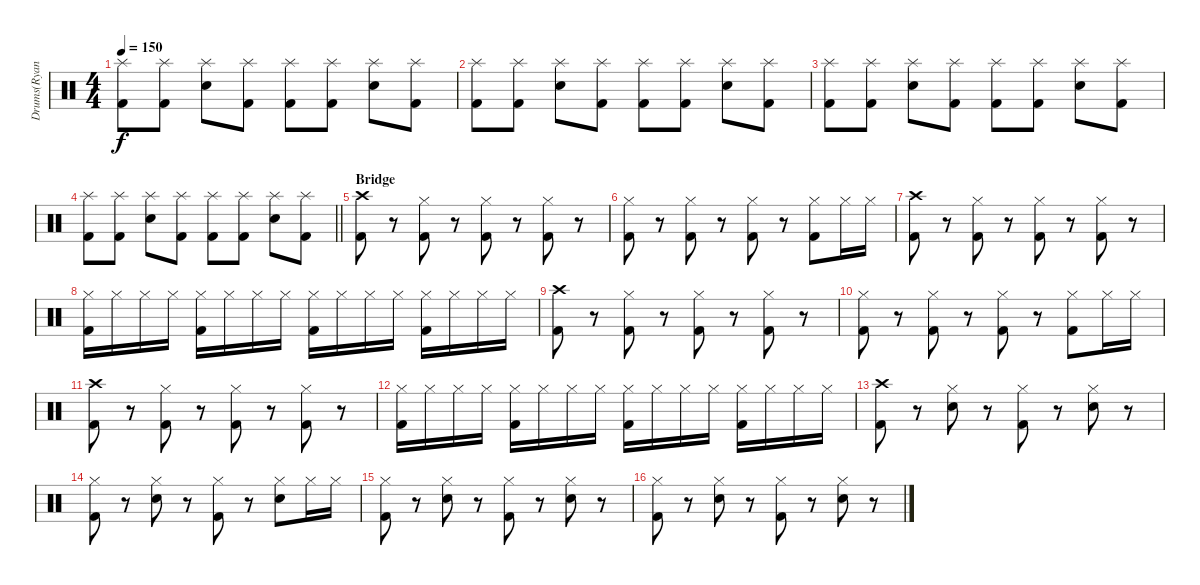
\track ("Drums(Ryan)" "Drums(Ryan") {instrument percussion}
\staff {score}
\articulation defaults
\ts (4 4)
\tempo 150
\clef neutral
\ks c
("Splash (hit)" "Kick (hit) 2").8{dy f} ("Splash (hit)" "Kick (hit) 2").8 ("Splash (hit)" "Electric Snare (hit)").8 ("Splash (hit)" "Kick (hit) 2").8 ("Splash (hit)" "Kick (hit) 2").8 ("Splash (hit)" "Kick (hit) 2").8 ("Splash (hit)" "Electric Snare (hit)").8 ("Splash (hit)" "Kick (hit) 2").8 |
("Splash (hit)" "Kick (hit) 2").8 ("Splash (hit)" "Kick (hit) 2").8 ("Splash (hit)" "Electric Snare (hit)").8 ("Splash (hit)" "Kick (hit) 2").8 ("Splash (hit)" "Kick (hit) 2").8 ("Splash (hit)" "Kick (hit) 2").8 ("Splash (hit)" "Electric Snare (hit)").8 ("Splash (hit)" "Kick (hit) 2").8 |
("Splash (hit)" "Kick (hit) 2").8 ("Splash (hit)" "Kick (hit) 2").8 ("Splash (hit)" "Electric Snare (hit)").8 ("Splash (hit)" "Kick (hit) 2").8 ("Splash (hit)" "Kick (hit) 2").8 ("Splash (hit)" "Kick (hit) 2").8 ("Splash (hit)" "Electric Snare (hit)").8 ("Splash (hit)" "Kick (hit) 2").8 |
\barLineRight lightlight
("Splash (hit)" "Kick (hit) 2").8 ("Splash (hit)" "Kick (hit) 2").8 ("Splash (hit)" "Electric Snare (hit)").8 ("Splash (hit)" "Kick (hit) 2").8 ("Splash (hit)" "Kick (hit) 2").8 ("Splash (hit)" "Kick (hit) 2").8 ("Splash (hit)" "Electric Snare (hit)").8 ("Splash (hit)" "Kick (hit) 2").8 |
\section ("" "Bridge")
("Crash high (hit)" "Kick (hit) 2").8 r.8 ("Hi-Hat (closed)" "Kick (hit) 2").8 r.8 ("Hi-Hat (closed)" "Kick (hit) 2").8 r.8 ("Hi-Hat (closed)" "Kick (hit) 2").8 r.8 |
("Hi-Hat (closed)" "Kick (hit) 2").8 r.8 ("Hi-Hat (closed)" "Kick (hit) 2").8 r.8 ("Hi-Hat (closed)" "Kick (hit) 2").8 r.8 ("Hi-Hat (closed)" "Kick (hit) 2").8 "Hi-Hat (closed)".16 "Hi-Hat (closed)".16 |
("Crash high (hit)" "Kick (hit) 2").8 r.8 ("Hi-Hat (closed)" "Kick (hit) 2").8 r.8 ("Hi-Hat (closed)" "Kick (hit) 2").8 r.8 ("Hi-Hat (closed)" "Kick (hit) 2").8 r.8 |
("Hi-Hat (closed)" "Kick (hit) 2").16 "Hi-Hat (closed)".16 "Hi-Hat (closed)".16 "Hi-Hat (closed)".16 ("Hi-Hat (closed)" "Kick (hit) 2").16 "Hi-Hat (closed)".16 "Hi-Hat (closed)".16 "Hi-Hat (closed)".16 ("Hi-Hat (closed)" "Kick (hit) 2").16 "Hi-Hat (closed)".16 "Hi-Hat (closed)".16 "Hi-Hat (closed)".16 ("Hi-Hat (closed)" "Kick (hit) 2").16 "Hi-Hat (closed)".16 "Hi-Hat (closed)".16 "Hi-Hat (closed)".16 |
("Crash high (hit)" "Kick (hit) 2").8 r.8 ("Hi-Hat (closed)" "Kick (hit) 2").8 r.8 ("Hi-Hat (closed)" "Kick (hit) 2").8 r.8 ("Hi-Hat (closed)" "Kick (hit) 2").8 r.8 |
("Hi-Hat (closed)" "Kick (hit) 2").8 r.8 ("Hi-Hat (closed)" "Kick (hit) 2").8 r.8 ("Hi-Hat (closed)" "Kick (hit) 2").8 r.8 ("Hi-Hat (closed)" "Kick (hit) 2").8 "Hi-Hat (closed)".16 "Hi-Hat (closed)".16 |
("Crash high (hit)" "Kick (hit) 2").8 r.8 ("Hi-Hat (closed)" "Kick (hit) 2").8 r.8 ("Hi-Hat (closed)" "Kick (hit) 2").8 r.8 ("Hi-Hat (closed)" "Kick (hit) 2").8 r.8 |
("Hi-Hat (closed)" "Kick (hit) 2").16 "Hi-Hat (closed)".16 "Hi-Hat (closed)".16 "Hi-Hat (closed)".16 ("Hi-Hat (closed)" "Kick (hit) 2").16 "Hi-Hat (closed)".16 "Hi-Hat (closed)".16 "Hi-Hat (closed)".16 ("Hi-Hat (closed)" "Kick (hit) 2").16 "Hi-Hat (closed)".16 "Hi-Hat (closed)".16 "Hi-Hat (closed)".16 ("Hi-Hat (closed)" "Kick (hit) 2").16 "Hi-Hat (closed)".16 "Hi-Hat (closed)".16 "Hi-Hat (closed)".16 |
("Crash high (hit)" "Kick (hit) 2").8 r.8 ("Hi-Hat (closed)" "Electric Snare (hit)").8 r.8 ("Hi-Hat (closed)" "Kick (hit) 2").8 r.8 ("Hi-Hat (closed)" "Electric Snare (hit)").8 r.8 |
("Hi-Hat (closed)" "Kick (hit) 2").8 r.8 ("Hi-Hat (closed)" "Electric Snare (hit)").8 r.8 ("Hi-Hat (closed)" "Kick (hit) 2").8 r.8 ("Hi-Hat (closed)" "Electric Snare (hit)").8 "Hi-Hat (closed)".16 "Hi-Hat (closed)".16 |
("Hi-Hat (closed)" "Kick (hit) 2").8 r.8 ("Hi-Hat (closed)" "Electric Snare (hit)").8 r.8 ("Hi-Hat (closed)" "Kick (hit) 2").8 r.8 ("Hi-Hat (closed)" "Electric Snare (hit)").8 r.8 |
("Hi-Hat (closed)" "Kick (hit) 2").8 r.8 ("Hi-Hat (closed)" "Electric Snare (hit)").8 r.8 ("Hi-Hat (closed)" "Kick (hit) 2").8 r.8 ("Hi-Hat (closed)" "Electric Snare (hit)").8 r.8
